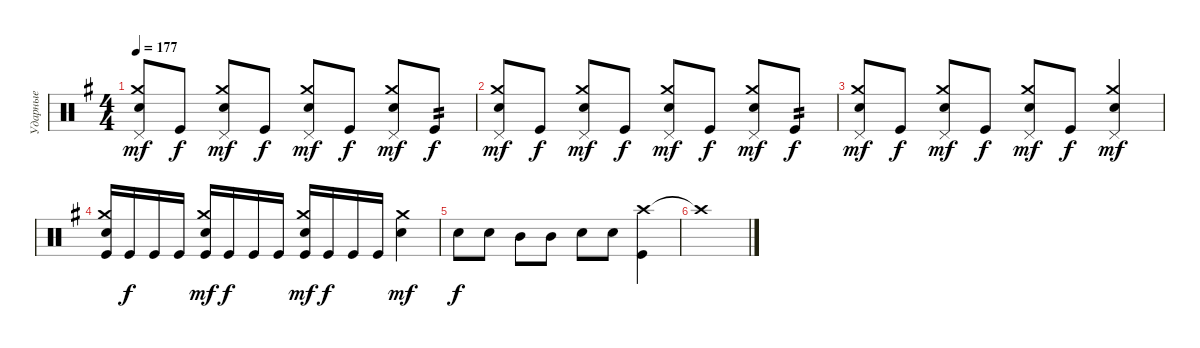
\track ("Ударные" "Ударные") {instrument percussion}
\staff {score}
\articulation defaults
\ts (4 4)
\tempo 177
\clef neutral
\ks eminor
("Snare (hit) 2" "Crash medium (hit)" "Pedal Hi-Hat (hit)").8{dy mf} "Kick (hit)".8{dy f} ("Snare (hit) 2" "Crash medium (hit)" "Pedal Hi-Hat (hit)").8{dy mf} "Kick (hit)".8{dy f} ("Snare (hit) 2" "Pedal Hi-Hat (hit)" "Crash medium (hit)").8{dy mf} "Kick (hit)".8{dy f} ("Snare (hit) 2" "Crash medium (hit)" "Pedal Hi-Hat (hit)").8{dy mf} "Kick (hit)".8{tp 2 dy f} |
("Snare (hit) 2" "Crash medium (hit)" "Pedal Hi-Hat (hit)").8{dy mf} "Kick (hit)".8{dy f} ("Snare (hit) 2" "Crash medium (hit)" "Pedal Hi-Hat (hit)").8{dy mf} "Kick (hit)".8{dy f} ("Snare (hit) 2" "Pedal Hi-Hat (hit)" "Crash medium (hit)").8{dy mf} "Kick (hit)".8{dy f} ("Snare (hit) 2" "Crash medium (hit)" "Pedal Hi-Hat (hit)").8{dy mf} "Kick (hit)".8{tp 2 dy f} |
("Snare (hit) 2" "Crash medium (hit)" "Pedal Hi-Hat (hit)").8{dy mf} "Kick (hit)".8{dy f} ("Snare (hit) 2" "Crash medium (hit)" "Pedal Hi-Hat (hit)").8{dy mf} "Kick (hit)".8{dy f} ("Snare (hit) 2" "Pedal Hi-Hat (hit)" "Crash medium (hit)").8{dy mf} "Kick (hit)".8{dy f} ("Snare (hit) 2" "Crash medium (hit)" "Pedal Hi-Hat (hit)").4{dy mf} |
("Kick (hit)" "Crash medium (hit)" "Snare (hit) 2").16 "Kick (hit)".16{dy f} "Kick (hit)".16 "Kick (hit)".16 ("Crash medium (hit)" "Kick (hit)" "Snare (hit) 2").16{dy mf} "Kick (hit)".16{dy f} "Kick (hit)".16 "Kick (hit)".16 ("Kick (hit)" "Crash medium (hit)" "Snare (hit) 2").16{dy mf} "Kick (hit)".16{dy f} "Kick (hit)".16 "Kick (hit)".16 ("Snare (hit) 2" "Crash medium (hit)").4{dy mf} |
"Snare (hit) 2".8{dy f} "Snare (hit) 2".8 "Mid Tom (hit)".8 "Mid Tom (hit)".8 "Snare (hit) 2".8 "Snare (hit) 2".8 ("Crash high (hit)" "Kick (hit)").4 |
"Crash high (hit)"{t}.1
